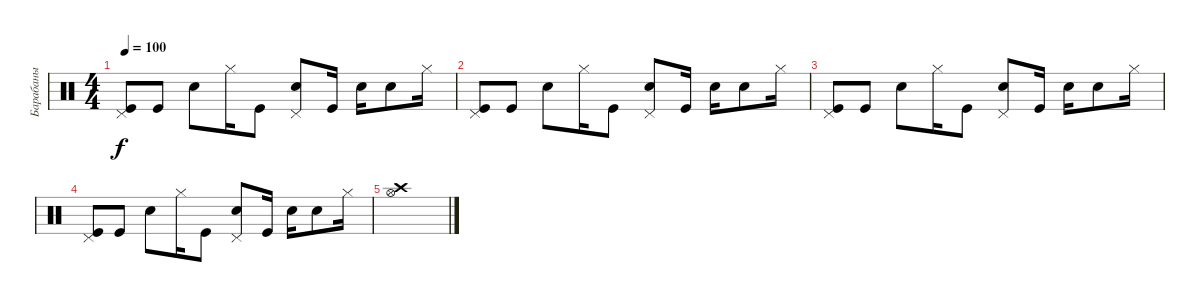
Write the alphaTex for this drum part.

\track ("Барабаны" "Барабаны") {instrument percussion}
\staff {score}
\articulation defaults
\ts (4 4)
\tempo 100
\clef neutral
\ks c
("Kick (hit)" "Pedal Hi-Hat (hit)").8{dy f} "Kick (hit)".8 "Snare (hit) 2".8 "Hi-Hat (closed)".16 "Kick (hit)".8 ("Snare (hit) 2" "Pedal Hi-Hat (hit)").8 "Kick (hit)".16 "Snare (hit) 2".16 "Snare (hit) 2".8 "Hi-Hat (closed)".16 |
("Kick (hit)" "Pedal Hi-Hat (hit)").8 "Kick (hit)".8 "Snare (hit) 2".8 "Hi-Hat (closed)".16 "Kick (hit)".8 ("Snare (hit) 2" "Pedal Hi-Hat (hit)").8 "Kick (hit)".16 "Snare (hit) 2".16 "Snare (hit) 2".8 "Hi-Hat (closed)".16 |
("Kick (hit)" "Pedal Hi-Hat (hit)").8 "Kick (hit)".8 "Snare (hit) 2".8 "Hi-Hat (closed)".16 "Kick (hit)".8 ("Snare (hit) 2" "Pedal Hi-Hat (hit)").8 "Kick (hit)".16 "Snare (hit) 2".16 "Snare (hit) 2".8 "Hi-Hat (closed)".16 |
("Kick (hit)" "Pedal Hi-Hat (hit)").8 "Kick (hit)".8 "Snare (hit) 2".8 "Hi-Hat (closed)".16 "Kick (hit)".8 ("Snare (hit) 2" "Pedal Hi-Hat (hit)").8 "Kick (hit)".16 "Snare (hit) 2".16 "Snare (hit) 2".8 "Hi-Hat (closed)".16 |
("Crash high (hit)" "Hi-Hat (open)").1
